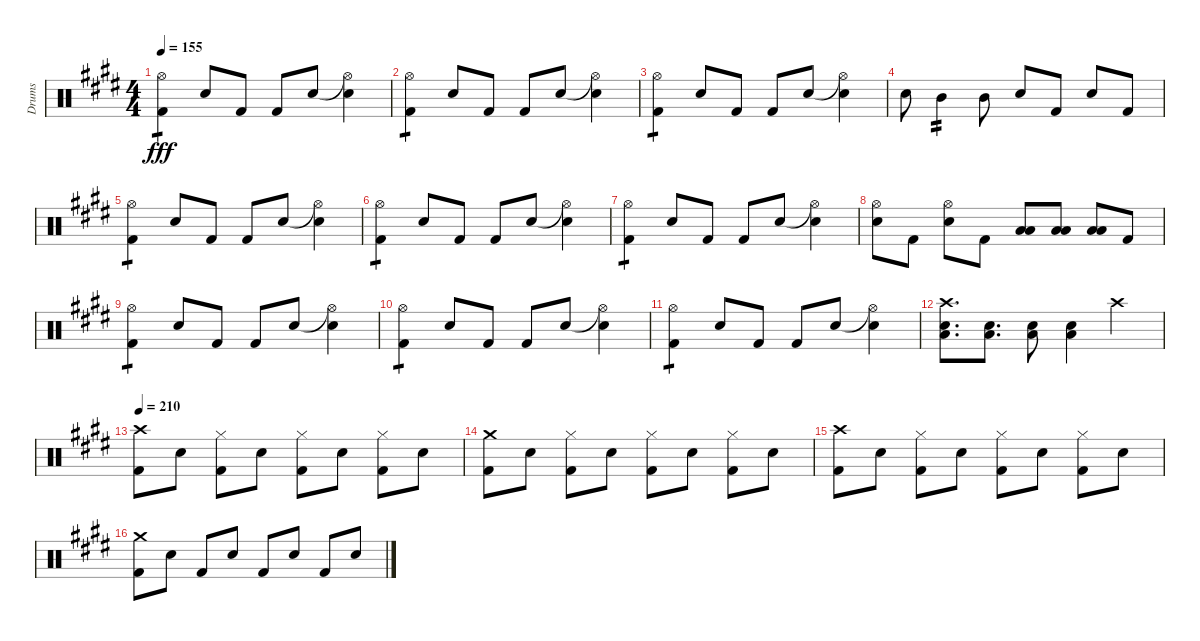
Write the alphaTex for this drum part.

\track ("Drums" "Drums") {instrument percussion}
\staff {score}
\articulation defaults
\ts (4 4)
\tempo 155
\clef neutral
\ks e
("Hi-Hat (open)" "Kick (hit) 2").4{tp 1 dy fff} "Snare (hit) 2".8 "Kick (hit) 2".8 "Kick (hit) 2".8 "Snare (hit) 2".8 ("Hi-Hat (open)"{t} "Snare (hit) 2").4 |
("Hi-Hat (open)" "Kick (hit) 2").4{tp 1} "Snare (hit) 2".8 "Kick (hit) 2".8 "Kick (hit) 2".8 "Snare (hit) 2".8 ("Hi-Hat (open)"{t} "Snare (hit) 2").4 |
("Hi-Hat (open)" "Kick (hit) 2").4{tp 1} "Snare (hit) 2".8 "Kick (hit) 2".8 "Kick (hit) 2".8 "Snare (hit) 2".8 ("Hi-Hat (open)"{t} "Snare (hit) 2").4 |
"Snare (hit) 2".8 "Mid Tom (hit)".4{tp 2} "Mid Tom (hit)".8 "Snare (hit) 2".8 "Kick (hit) 2".8 "Snare (hit) 2".8 "Kick (hit) 2".8 |
("Hi-Hat (open)" "Kick (hit) 2").4{tp 1} "Snare (hit) 2".8 "Kick (hit) 2".8 "Kick (hit) 2".8 "Snare (hit) 2".8 ("Hi-Hat (open)"{t} "Snare (hit) 2").4 |
("Hi-Hat (open)" "Kick (hit) 2").4{tp 1} "Snare (hit) 2".8 "Kick (hit) 2".8 "Kick (hit) 2".8 "Snare (hit) 2".8 ("Hi-Hat (open)"{t} "Snare (hit) 2").4 |
("Hi-Hat (open)" "Kick (hit) 2").4{tp 1} "Snare (hit) 2".8 "Kick (hit) 2".8 "Kick (hit) 2".8 "Snare (hit) 2".8 ("Hi-Hat (open)"{t} "Snare (hit) 2").4 |
("Hi-Hat (open)" "Snare (hit) 2").8 "Kick (hit) 2".8 ("Hi-Hat (open)" "Snare (hit) 2").8 "Kick (hit) 2".8 ("Low Tom (hit)" "Low Tom (hit)").8 ("Low Tom (hit)" "Low Tom (hit)").8 ("Low Tom (hit)" "Low Tom (hit)").8 "Kick (hit) 2".8 |
("Hi-Hat (open)" "Kick (hit) 2").4{tp 1} "Snare (hit) 2".8 "Kick (hit) 2".8 "Kick (hit) 2".8 "Snare (hit) 2".8 ("Hi-Hat (open)"{t} "Snare (hit) 2").4 |
("Hi-Hat (open)" "Kick (hit) 2").4{tp 1} "Snare (hit) 2".8 "Kick (hit) 2".8 "Kick (hit) 2".8 "Snare (hit) 2".8 ("Hi-Hat (open)"{t} "Snare (hit) 2").4 |
("Hi-Hat (open)" "Kick (hit) 2").4{tp 1} "Snare (hit) 2".8 "Kick (hit) 2".8 "Kick (hit) 2".8 "Snare (hit) 2".8 ("Hi-Hat (open)"{t} "Snare (hit) 2").4 |
("Crash high (hit)" "Snare (hit) 2" "Low Floor Tom (hit)").8{d} ("Snare (hit) 2" "Low Floor Tom (hit)").8{d} ("Snare (hit) 2" "Low Floor Tom (hit)").8 ("Snare (hit) 2" "Low Floor Tom (hit)").4 "Crash high (hit)".4 |
\tempo 210
("Crash high (hit)" "Kick (hit) 2").8 "Snare (hit) 2".8 ("Hi-Hat (closed)" "Kick (hit) 2").8 "Snare (hit) 2".8 ("Hi-Hat (closed)" "Kick (hit) 2").8 "Snare (hit) 2".8 ("Hi-Hat (closed)" "Kick (hit) 2").8 "Snare (hit) 2".8 |
("Crash medium (hit)" "Kick (hit) 2").8 "Snare (hit) 2".8 ("Hi-Hat (closed)" "Kick (hit) 2").8 "Snare (hit) 2".8 ("Hi-Hat (closed)" "Kick (hit) 2").8 "Snare (hit) 2".8 ("Hi-Hat (closed)" "Kick (hit) 2").8 "Snare (hit) 2".8 |
("Crash high (hit)" "Kick (hit) 2").8 "Snare (hit) 2".8 ("Hi-Hat (closed)" "Kick (hit) 2").8 "Snare (hit) 2".8 ("Hi-Hat (closed)" "Kick (hit) 2").8 "Snare (hit) 2".8 ("Hi-Hat (closed)" "Kick (hit) 2").8 "Snare (hit) 2".8 |
("Crash medium (hit)" "Kick (hit) 2").8 "Snare (hit) 2".8 "Kick (hit) 2".8 "Snare (hit) 2".8 "Kick (hit) 2".8 "Snare (hit) 2".8 "Kick (hit) 2".8 "Snare (hit) 2".8
